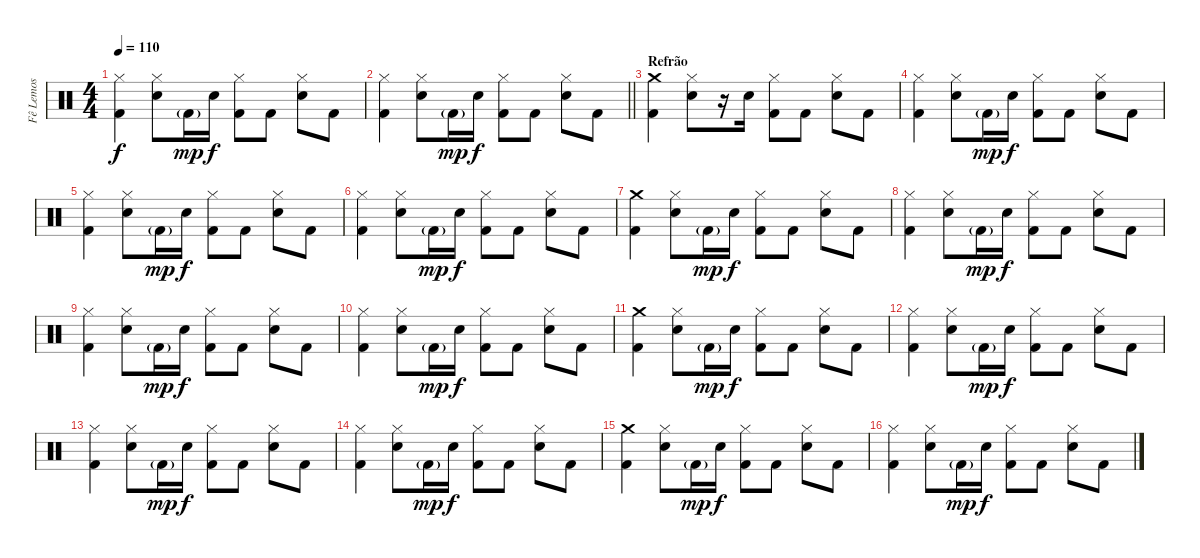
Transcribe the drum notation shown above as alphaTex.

\track ("Fê Lemos" "Fê Lemos") {instrument percussion}
\staff {score}
\articulation defaults
\ts (4 4)
\tempo 110
\clef neutral
\ks c
("Hi-Hat (closed)" "Kick (hit) 2").4{dy f} ("Hi-Hat (closed)" "Electric Snare (hit)").8 "Kick (hit) 2"{g}.16{dy mp} "Electric Snare (hit)".16{dy f} ("Hi-Hat (closed)" "Kick (hit) 2").8 "Kick (hit) 2".8 ("Hi-Hat (closed)" "Electric Snare (hit)").8 "Kick (hit) 2".8 |
\barLineRight lightlight
("Hi-Hat (closed)" "Kick (hit) 2").4 ("Hi-Hat (closed)" "Electric Snare (hit)").8 "Kick (hit) 2"{g}.16{dy mp} "Electric Snare (hit)".16{dy f} ("Hi-Hat (closed)" "Kick (hit) 2").8 "Kick (hit) 2".8 ("Hi-Hat (closed)" "Electric Snare (hit)").8 "Kick (hit) 2".8 |
\section ("" "Refrão")
("Crash medium (hit)" "Kick (hit) 2").4 ("Hi-Hat (closed)" "Electric Snare (hit)").8 r.16 "Electric Snare (hit)".16 ("Hi-Hat (closed)" "Kick (hit) 2").8 "Kick (hit) 2".8 ("Hi-Hat (closed)" "Electric Snare (hit)").8 "Kick (hit) 2".8 |
("Hi-Hat (closed)" "Kick (hit) 2").4 ("Hi-Hat (closed)" "Electric Snare (hit)").8 "Kick (hit) 2"{g}.16{dy mp} "Electric Snare (hit)".16{dy f} ("Hi-Hat (closed)" "Kick (hit) 2").8 "Kick (hit) 2".8 ("Hi-Hat (closed)" "Electric Snare (hit)").8 "Kick (hit) 2".8 |
("Hi-Hat (closed)" "Kick (hit) 2").4 ("Hi-Hat (closed)" "Electric Snare (hit)").8 "Kick (hit) 2"{g}.16{dy mp} "Electric Snare (hit)".16{dy f} ("Hi-Hat (closed)" "Kick (hit) 2").8 "Kick (hit) 2".8 ("Hi-Hat (closed)" "Electric Snare (hit)").8 "Kick (hit) 2".8 |
("Hi-Hat (closed)" "Kick (hit) 2").4 ("Hi-Hat (closed)" "Electric Snare (hit)").8 "Kick (hit) 2"{g}.16{dy mp} "Electric Snare (hit)".16{dy f} ("Hi-Hat (closed)" "Kick (hit) 2").8 "Kick (hit) 2".8 ("Hi-Hat (closed)" "Electric Snare (hit)").8 "Kick (hit) 2".8 |
("Crash medium (hit)" "Kick (hit) 2").4 ("Hi-Hat (closed)" "Electric Snare (hit)").8 "Kick (hit) 2"{g}.16{dy mp} "Electric Snare (hit)".16{dy f} ("Hi-Hat (closed)" "Kick (hit) 2").8 "Kick (hit) 2".8 ("Hi-Hat (closed)" "Electric Snare (hit)").8 "Kick (hit) 2".8 |
("Hi-Hat (closed)" "Kick (hit) 2").4 ("Hi-Hat (closed)" "Electric Snare (hit)").8 "Kick (hit) 2"{g}.16{dy mp} "Electric Snare (hit)".16{dy f} ("Hi-Hat (closed)" "Kick (hit) 2").8 "Kick (hit) 2".8 ("Hi-Hat (closed)" "Electric Snare (hit)").8 "Kick (hit) 2".8 |
("Hi-Hat (closed)" "Kick (hit) 2").4 ("Hi-Hat (closed)" "Electric Snare (hit)").8 "Kick (hit) 2"{g}.16{dy mp} "Electric Snare (hit)".16{dy f} ("Hi-Hat (closed)" "Kick (hit) 2").8 "Kick (hit) 2".8 ("Hi-Hat (closed)" "Electric Snare (hit)").8 "Kick (hit) 2".8 |
("Hi-Hat (closed)" "Kick (hit) 2").4 ("Hi-Hat (closed)" "Electric Snare (hit)").8 "Kick (hit) 2"{g}.16{dy mp} "Electric Snare (hit)".16{dy f} ("Hi-Hat (closed)" "Kick (hit) 2").8 "Kick (hit) 2".8 ("Hi-Hat (closed)" "Electric Snare (hit)").8 "Kick (hit) 2".8 |
("Crash medium (hit)" "Kick (hit) 2").4 ("Hi-Hat (closed)" "Electric Snare (hit)").8 "Kick (hit) 2"{g}.16{dy mp} "Electric Snare (hit)".16{dy f} ("Hi-Hat (closed)" "Kick (hit) 2").8 "Kick (hit) 2".8 ("Hi-Hat (closed)" "Electric Snare (hit)").8 "Kick (hit) 2".8 |
("Hi-Hat (closed)" "Kick (hit) 2").4 ("Hi-Hat (closed)" "Electric Snare (hit)").8 "Kick (hit) 2"{g}.16{dy mp} "Electric Snare (hit)".16{dy f} ("Hi-Hat (closed)" "Kick (hit) 2").8 "Kick (hit) 2".8 ("Hi-Hat (closed)" "Electric Snare (hit)").8 "Kick (hit) 2".8 |
("Hi-Hat (closed)" "Kick (hit) 2").4 ("Hi-Hat (closed)" "Electric Snare (hit)").8 "Kick (hit) 2"{g}.16{dy mp} "Electric Snare (hit)".16{dy f} ("Hi-Hat (closed)" "Kick (hit) 2").8 "Kick (hit) 2".8 ("Hi-Hat (closed)" "Electric Snare (hit)").8 "Kick (hit) 2".8 |
("Hi-Hat (closed)" "Kick (hit) 2").4 ("Hi-Hat (closed)" "Electric Snare (hit)").8 "Kick (hit) 2"{g}.16{dy mp} "Electric Snare (hit)".16{dy f} ("Hi-Hat (closed)" "Kick (hit) 2").8 "Kick (hit) 2".8 ("Hi-Hat (closed)" "Electric Snare (hit)").8 "Kick (hit) 2".8 |
("Crash medium (hit)" "Kick (hit) 2").4 ("Hi-Hat (closed)" "Electric Snare (hit)").8 "Kick (hit) 2"{g}.16{dy mp} "Electric Snare (hit)".16{dy f} ("Hi-Hat (closed)" "Kick (hit) 2").8 "Kick (hit) 2".8 ("Hi-Hat (closed)" "Electric Snare (hit)").8 "Kick (hit) 2".8 |
("Hi-Hat (closed)" "Kick (hit) 2").4 ("Hi-Hat (closed)" "Electric Snare (hit)").8 "Kick (hit) 2"{g}.16{dy mp} "Electric Snare (hit)".16{dy f} ("Hi-Hat (closed)" "Kick (hit) 2").8 "Kick (hit) 2".8 ("Hi-Hat (closed)" "Electric Snare (hit)").8 "Kick (hit) 2".8
